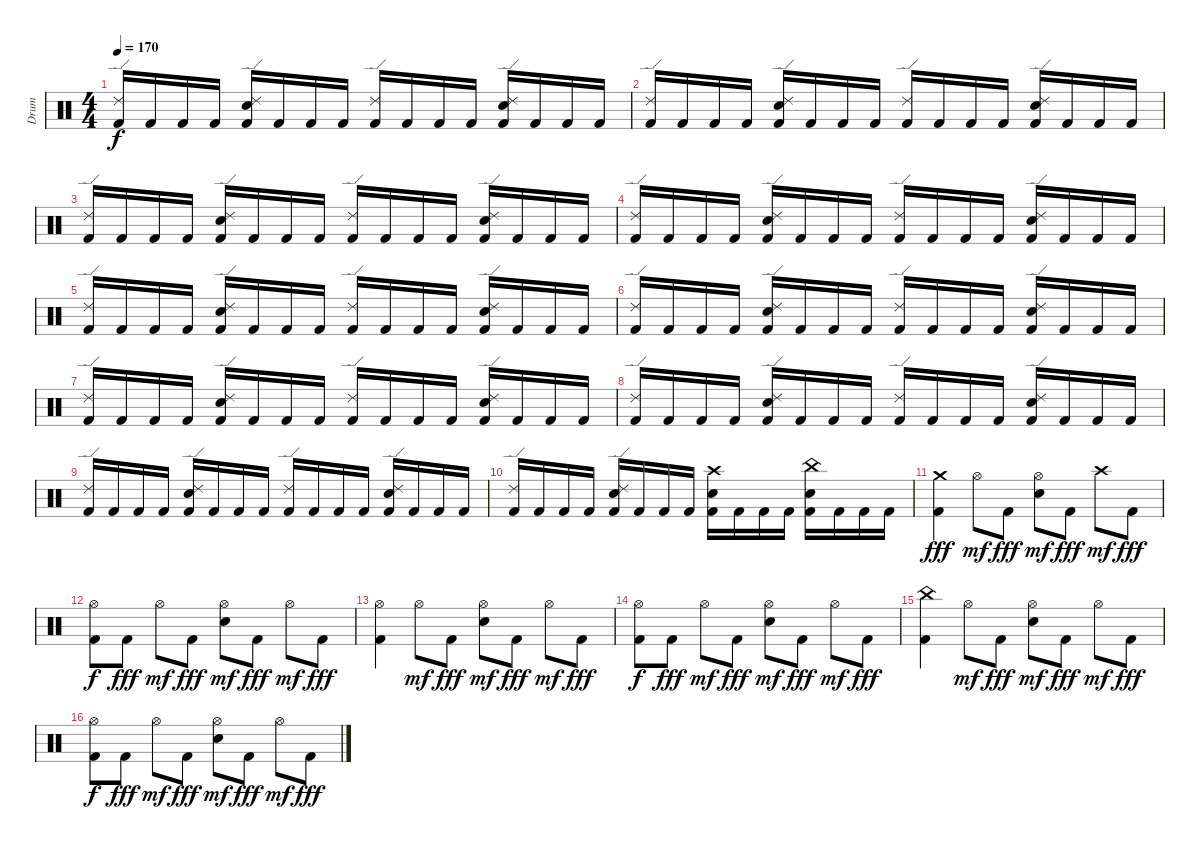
\track ("Drum" "Drum") {instrument percussion}
\staff {score}
\articulation defaults
\ts (4 4)
\tempo 170
\clef neutral
\ks c
("Ride (edge) 2" "Kick (hit) 2").16{dy f} "Kick (hit) 2".16 "Kick (hit) 2".16 "Kick (hit) 2".16 ("Ride (edge) 2" "Snare (hit) 2" "Kick (hit) 2").16 "Kick (hit) 2".16 "Kick (hit) 2".16 "Kick (hit) 2".16 ("Ride (edge) 2" "Kick (hit) 2").16 "Kick (hit) 2".16 "Kick (hit) 2".16 "Kick (hit) 2".16 ("Ride (edge) 2" "Snare (hit) 2" "Kick (hit) 2").16 "Kick (hit) 2".16 "Kick (hit) 2".16 "Kick (hit) 2".16 |
("Ride (edge) 2" "Kick (hit) 2").16 "Kick (hit) 2".16 "Kick (hit) 2".16 "Kick (hit) 2".16 ("Ride (edge) 2" "Snare (hit) 2" "Kick (hit) 2").16 "Kick (hit) 2".16 "Kick (hit) 2".16 "Kick (hit) 2".16 ("Ride (edge) 2" "Kick (hit) 2").16 "Kick (hit) 2".16 "Kick (hit) 2".16 "Kick (hit) 2".16 ("Ride (edge) 2" "Snare (hit) 2" "Kick (hit) 2").16 "Kick (hit) 2".16 "Kick (hit) 2".16 "Kick (hit) 2".16 |
("Ride (edge) 2" "Kick (hit) 2").16 "Kick (hit) 2".16 "Kick (hit) 2".16 "Kick (hit) 2".16 ("Ride (edge) 2" "Snare (hit) 2" "Kick (hit) 2").16 "Kick (hit) 2".16 "Kick (hit) 2".16 "Kick (hit) 2".16 ("Ride (edge) 2" "Kick (hit) 2").16 "Kick (hit) 2".16 "Kick (hit) 2".16 "Kick (hit) 2".16 ("Ride (edge) 2" "Snare (hit) 2" "Kick (hit) 2").16 "Kick (hit) 2".16 "Kick (hit) 2".16 "Kick (hit) 2".16 |
("Ride (edge) 2" "Kick (hit) 2").16 "Kick (hit) 2".16 "Kick (hit) 2".16 "Kick (hit) 2".16 ("Ride (edge) 2" "Snare (hit) 2" "Kick (hit) 2").16 "Kick (hit) 2".16 "Kick (hit) 2".16 "Kick (hit) 2".16 ("Ride (edge) 2" "Kick (hit) 2").16 "Kick (hit) 2".16 "Kick (hit) 2".16 "Kick (hit) 2".16 ("Ride (edge) 2" "Snare (hit) 2" "Kick (hit) 2").16 "Kick (hit) 2".16 "Kick (hit) 2".16 "Kick (hit) 2".16 |
("Ride (edge) 2" "Kick (hit) 2").16 "Kick (hit) 2".16 "Kick (hit) 2".16 "Kick (hit) 2".16 ("Ride (edge) 2" "Snare (hit) 2" "Kick (hit) 2").16 "Kick (hit) 2".16 "Kick (hit) 2".16 "Kick (hit) 2".16 ("Ride (edge) 2" "Kick (hit) 2").16 "Kick (hit) 2".16 "Kick (hit) 2".16 "Kick (hit) 2".16 ("Ride (edge) 2" "Snare (hit) 2" "Kick (hit) 2").16 "Kick (hit) 2".16 "Kick (hit) 2".16 "Kick (hit) 2".16 |
("Ride (edge) 2" "Kick (hit) 2").16 "Kick (hit) 2".16 "Kick (hit) 2".16 "Kick (hit) 2".16 ("Ride (edge) 2" "Snare (hit) 2" "Kick (hit) 2").16 "Kick (hit) 2".16 "Kick (hit) 2".16 "Kick (hit) 2".16 ("Ride (edge) 2" "Kick (hit) 2").16 "Kick (hit) 2".16 "Kick (hit) 2".16 "Kick (hit) 2".16 ("Ride (edge) 2" "Snare (hit) 2" "Kick (hit) 2").16 "Kick (hit) 2".16 "Kick (hit) 2".16 "Kick (hit) 2".16 |
("Ride (edge) 2" "Kick (hit) 2").16 "Kick (hit) 2".16 "Kick (hit) 2".16 "Kick (hit) 2".16 ("Ride (edge) 2" "Snare (hit) 2" "Kick (hit) 2").16 "Kick (hit) 2".16 "Kick (hit) 2".16 "Kick (hit) 2".16 ("Ride (edge) 2" "Kick (hit) 2").16 "Kick (hit) 2".16 "Kick (hit) 2".16 "Kick (hit) 2".16 ("Ride (edge) 2" "Snare (hit) 2" "Kick (hit) 2").16 "Kick (hit) 2".16 "Kick (hit) 2".16 "Kick (hit) 2".16 |
("Ride (edge) 2" "Kick (hit) 2").16 "Kick (hit) 2".16 "Kick (hit) 2".16 "Kick (hit) 2".16 ("Ride (edge) 2" "Snare (hit) 2" "Kick (hit) 2").16 "Kick (hit) 2".16 "Kick (hit) 2".16 "Kick (hit) 2".16 ("Ride (edge) 2" "Kick (hit) 2").16 "Kick (hit) 2".16 "Kick (hit) 2".16 "Kick (hit) 2".16 ("Ride (edge) 2" "Snare (hit) 2" "Kick (hit) 2").16 "Kick (hit) 2".16 "Kick (hit) 2".16 "Kick (hit) 2".16 |
("Ride (edge) 2" "Kick (hit) 2").16 "Kick (hit) 2".16 "Kick (hit) 2".16 "Kick (hit) 2".16 ("Ride (edge) 2" "Snare (hit) 2" "Kick (hit) 2").16 "Kick (hit) 2".16 "Kick (hit) 2".16 "Kick (hit) 2".16 ("Ride (edge) 2" "Kick (hit) 2").16 "Kick (hit) 2".16 "Kick (hit) 2".16 "Kick (hit) 2".16 ("Ride (edge) 2" "Snare (hit) 2" "Kick (hit) 2").16 "Kick (hit) 2".16 "Kick (hit) 2".16 "Kick (hit) 2".16 |
("Ride (edge) 2" "Kick (hit) 2").16 "Kick (hit) 2".16 "Kick (hit) 2".16 "Kick (hit) 2".16 ("Ride (edge) 2" "Snare (hit) 2" "Kick (hit) 2").16 "Kick (hit) 2".16 "Kick (hit) 2".16 "Kick (hit) 2".16 ("Crash high (hit)" "Snare (hit) 2" "Kick (hit) 2").16 "Kick (hit) 2".16 "Kick (hit) 2".16 "Kick (hit) 2".16 ("China (hit)" "Snare (hit) 2" "Kick (hit) 2").16 "Kick (hit) 2".16 "Kick (hit) 2".16 "Kick (hit) 2".16 |
("Crash medium (hit)" "Kick (hit) 2").4{dy fff} "Hi-Hat (open)".8{dy mf} "Kick (hit) 2".8{dy fff} ("Hi-Hat (open)" "Snare (hit) 2").8{dy mf} "Kick (hit) 2".8{dy fff} "Crash high (hit)".8{dy mf} "Kick (hit) 2".8{dy fff} |
("Hi-Hat (open)" "Kick (hit) 2").8{dy f} "Kick (hit) 2".8{dy fff} "Hi-Hat (open)".8{dy mf} "Kick (hit) 2".8{dy fff} ("Hi-Hat (open)" "Snare (hit) 2").8{dy mf} "Kick (hit) 2".8{dy fff} "Hi-Hat (open)".8{dy mf} "Kick (hit) 2".8{dy fff} |
("Hi-Hat (open)" "Kick (hit) 2").4 "Hi-Hat (open)".8{dy mf} "Kick (hit) 2".8{dy fff} ("Hi-Hat (open)" "Snare (hit) 2").8{dy mf} "Kick (hit) 2".8{dy fff} "Hi-Hat (open)".8{dy mf} "Kick (hit) 2".8{dy fff} |
("Hi-Hat (open)" "Kick (hit) 2").8{dy f} "Kick (hit) 2".8{dy fff} "Hi-Hat (open)".8{dy mf} "Kick (hit) 2".8{dy fff} ("Hi-Hat (open)" "Snare (hit) 2").8{dy mf} "Kick (hit) 2".8{dy fff} "Hi-Hat (open)".8{dy mf} "Kick (hit) 2".8{dy fff} |
("China (hit)" "Kick (hit) 2").4 "Hi-Hat (open)".8{dy mf} "Kick (hit) 2".8{dy fff} ("Hi-Hat (open)" "Snare (hit) 2").8{dy mf} "Kick (hit) 2".8{dy fff} "Hi-Hat (open)".8{dy mf} "Kick (hit) 2".8{dy fff} |
("Hi-Hat (open)" "Kick (hit) 2").8{dy f} "Kick (hit) 2".8{dy fff} "Hi-Hat (open)".8{dy mf} "Kick (hit) 2".8{dy fff} ("Hi-Hat (open)" "Snare (hit) 2").8{dy mf} "Kick (hit) 2".8{dy fff} "Hi-Hat (open)".8{dy mf} "Kick (hit) 2".8{dy fff}
